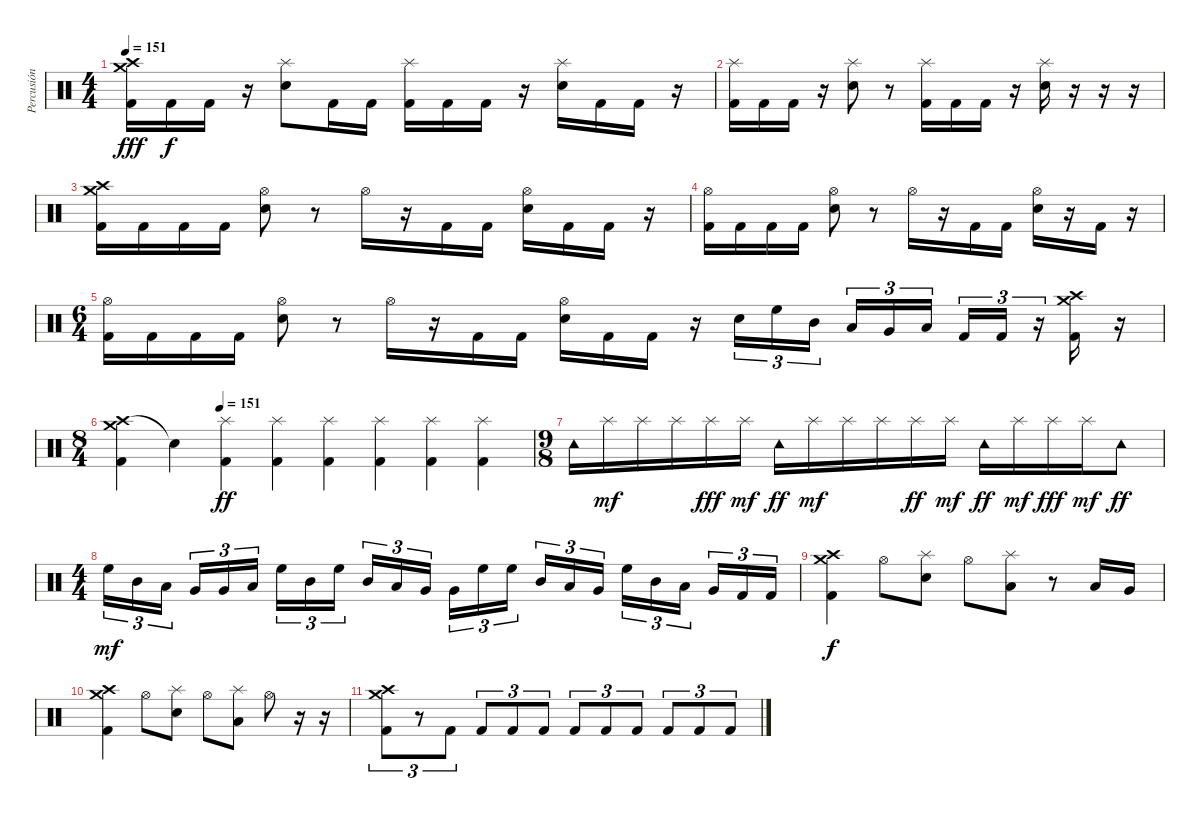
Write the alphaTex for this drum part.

\track ("Percusión" "Percusión") {instrument percussion}
\staff {score}
\articulation defaults
\ts (4 4)
\tempo 151
\clef neutral
\ks c
("Crash high (hit)" "Crash medium (hit)" "Kick (hit) 2").16{dy fff} "Kick (hit) 2".16{dy f} "Kick (hit) 2".16 r.16 ("Splash (hit)" "Electric Snare (hit)").8 "Kick (hit) 2".16 "Kick (hit) 2".16 ("Splash (hit)" "Kick (hit) 2").16 "Kick (hit) 2".16 "Kick (hit) 2".16 r.16 ("Splash (hit)" "Electric Snare (hit)").16 "Kick (hit) 2".16 "Kick (hit) 2".16 r.16 |
("Splash (hit)" "Kick (hit) 2").16 "Kick (hit) 2".16 "Kick (hit) 2".16 r.16 ("Splash (hit)" "Electric Snare (hit)").8 r.8 ("Splash (hit)" "Kick (hit) 2").16 "Kick (hit) 2".16 "Kick (hit) 2".16 r.16 ("Splash (hit)" "Electric Snare (hit)").16 r.16 r.16 r.16 |
("Crash high (hit)" "Crash medium (hit)" "Kick (hit) 2").16 "Kick (hit) 2".16 "Kick (hit) 2".16 "Kick (hit) 2".16 ("Hi-Hat (open)" "Electric Snare (hit)").8 r.8 "Hi-Hat (open)".16 r.16 "Kick (hit) 2".16 "Kick (hit) 2".16 ("Hi-Hat (open)" "Electric Snare (hit)").16 "Kick (hit) 2".16 "Kick (hit) 2".16 r.16 |
("Hi-Hat (open)" "Kick (hit) 2").16 "Kick (hit) 2".16 "Kick (hit) 2".16 "Kick (hit) 2".16 ("Hi-Hat (open)" "Electric Snare (hit)").8 r.8 "Hi-Hat (open)".16 r.16 "Kick (hit) 2".16 "Kick (hit) 2".16 ("Hi-Hat (open)" "Electric Snare (hit)").16 r.16 "Kick (hit) 2".16 r.16 |
\ts (6 4)
("Hi-Hat (open)" "Kick (hit) 2").16 "Kick (hit) 2".16 "Kick (hit) 2".16 "Kick (hit) 2".16 ("Hi-Hat (open)" "Electric Snare (hit)").8 r.8 "Hi-Hat (open)".16 r.16 "Kick (hit) 2".16 "Kick (hit) 2".16 ("Hi-Hat (open)" "Electric Snare (hit)").16 "Kick (hit) 2".16 "Kick (hit) 2".16 r.16 "Electric Snare (hit)".16{tu (3 2)} "High Floor Tom (hit)".16{tu (3 2)} "Mid Tom (hit)".16{tu (3 2) beam splitsecondary} "Low Tom (hit)".16{tu (3 2)} "Very Low Tom (hit)".16{tu (3 2)} "Low Floor Tom (hit)".16{tu (3 2) beam splitsecondary} "Kick (hit) 2".16{tu (3 2)} "Kick (hit) 2".16{tu (3 2)} r.16{tu (3 2)} ("Crash medium (hit)" "Crash high (hit)" "Kick (hit) 2").16 r.16 |
\ts (8 4)
\tempo (151 0.25)
("Crash high (hit)" "Crash medium (hit)" "Kick (hit) 2").4 "Snare (hit)"{t}.4 ("Splash (hit)" "Kick (hit) 2").4{dy ff} ("Splash (hit)" "Kick (hit) 2").4 ("Splash (hit)" "Kick (hit) 2").4 ("Splash (hit)" "Kick (hit) 2").4 ("Splash (hit)" "Kick (hit) 2").4 ("Splash (hit)" "Kick (hit) 2").4 |
\ts (9 8)
"Tambourine (hit)".16 "Splash (hit)".16{dy mf} "Splash (hit)".16 "Splash (hit)".16 "Splash (hit)".16{dy fff} "Splash (hit)".16{dy mf} "Tambourine (hit)".16{dy ff} "Splash (hit)".16{dy mf} "Splash (hit)".16 "Splash (hit)".16 "Splash (hit)".16{dy ff} "Splash (hit)".16{dy mf} "Tambourine (hit)".16{dy ff} "Splash (hit)".16{dy mf} "Splash (hit)".16{dy fff} "Splash (hit)".16{dy mf} "Tambourine (hit)".8{dy ff} |
\ts (4 4)
"High Floor Tom (hit)".16{tu (3 2) dy mf} "Mid Tom (hit)".16{tu (3 2)} "Low Tom (hit)".16{tu (3 2) beam splitsecondary} "Very Low Tom (hit)".16{tu (3 2)} "Very Low Tom (hit)".16{tu (3 2)} "Low Floor Tom (hit)".16{tu (3 2)} "High Floor Tom (hit)".16{tu (3 2)} "Mid Tom (hit)".16{tu (3 2)} "High Floor Tom (hit)".16{tu (3 2) beam splitsecondary} "Mid Tom (hit)".16{tu (3 2)} "Low Tom (hit)".16{tu (3 2)} "Very Low Tom (hit)".16{tu (3 2)} "Very Low Tom (hit)".16{tu (3 2)} "High Floor Tom (hit)".16{tu (3 2)} "High Floor Tom (hit)".16{tu (3 2) beam splitsecondary} "Mid Tom (hit)".16{tu (3 2)} "Low Tom (hit)".16{tu (3 2)} "Very Low Tom (hit)".16{tu (3 2)} "High Floor Tom (hit)".16{tu (3 2)} "Mid Tom (hit)".16{tu (3 2)} "Low Tom (hit)".16{tu (3 2) beam splitsecondary} "Very Low Tom (hit)".16{tu (3 2)} "Kick (hit) 2".16{tu (3 2)} "Kick (hit) 2".16{tu (3 2)} |
("Crash high (hit)" "Crash medium (hit)" "Kick (hit) 2").4{dy f} "Hi-Hat (open)".8 ("Splash (hit)" "Electric Snare (hit)").8 "Hi-Hat (open)".8 ("Splash (hit)" "Low Tom (hit)").8 r.8 "Low Tom (hit)".16 "Very Low Tom (hit)".16 |
("Crash high (hit)" "Crash medium (hit)" "Kick (hit) 2").4 "Hi-Hat (open)".8 ("Splash (hit)" "Electric Snare (hit)").8 "Hi-Hat (open)".8 ("Splash (hit)" "Low Tom (hit)").8 "Hi-Hat (open)".8 r.16 r.16 |
("Crash high (hit)" "Crash medium (hit)" "Kick (hit) 2").8{tu (3 2)} r.8{tu (3 2)} "Kick (hit) 2".8{tu (3 2)} "Kick (hit) 2".8{tu (3 2)} "Kick (hit) 2".8{tu (3 2)} "Kick (hit) 2".8{tu (3 2)} "Kick (hit) 2".8{tu (3 2)} "Kick (hit) 2".8{tu (3 2)} "Kick (hit) 2".8{tu (3 2)} "Kick (hit) 2".8{tu (3 2)} "Kick (hit) 2".8{tu (3 2)} "Kick (hit) 2".8{tu (3 2)}
